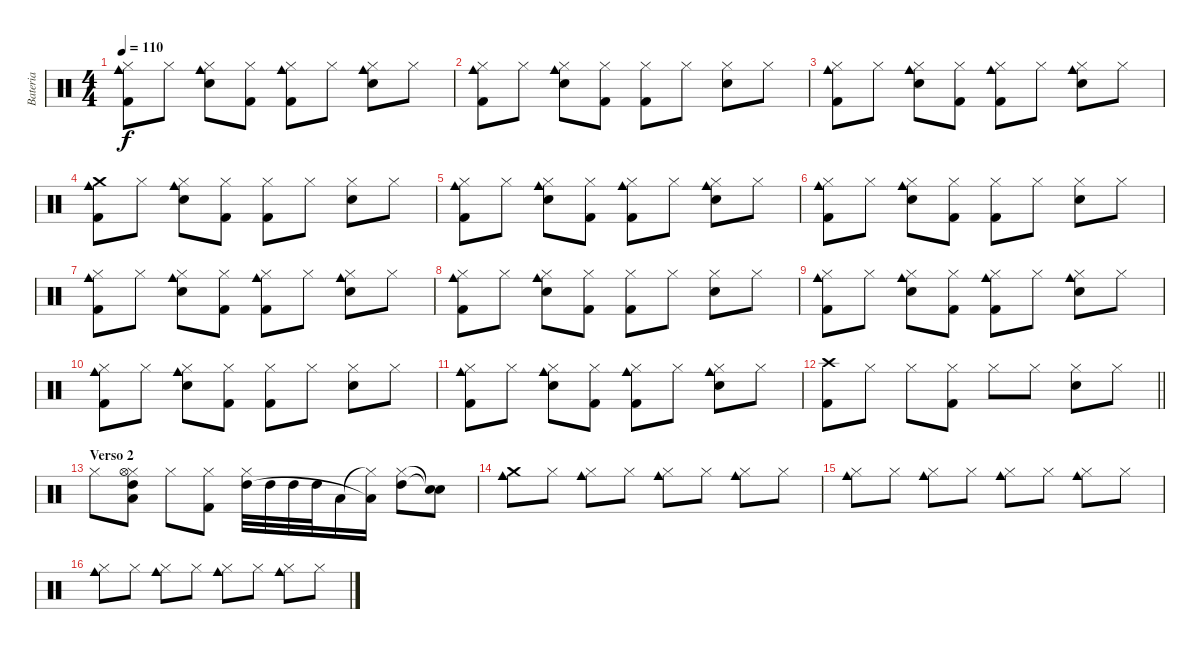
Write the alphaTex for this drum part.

\track ("Bateria" "Bateria") {instrument percussion}
\staff {score}
\articulation defaults
\ts (4 4)
\tempo 110
\clef neutral
\ks c
("Hi-Hat (closed)" "Cowbell medium (hit)" "Kick (hit) 2").8{dy f} "Hi-Hat (closed)".8 ("Hi-Hat (closed)" "Electric Snare (hit)" "Cowbell medium (hit)").8 ("Hi-Hat (closed)" "Kick (hit) 2").8 ("Hi-Hat (closed)" "Cowbell medium (hit)" "Kick (hit) 2").8 "Hi-Hat (closed)".8 ("Hi-Hat (closed)" "Electric Snare (hit)" "Cowbell medium (hit)").8 "Hi-Hat (closed)".8 |
("Hi-Hat (closed)" "Cowbell medium (hit)" "Kick (hit) 2").8 "Hi-Hat (closed)".8 ("Hi-Hat (closed)" "Electric Snare (hit)" "Cowbell medium (hit)").8 ("Hi-Hat (closed)" "Kick (hit) 2").8 ("Hi-Hat (closed)" "Kick (hit) 2").8 "Hi-Hat (closed)".8 ("Hi-Hat (closed)" "Electric Snare (hit)").8 "Hi-Hat (closed)".8 |
("Hi-Hat (closed)" "Cowbell medium (hit)" "Kick (hit) 2").8 "Hi-Hat (closed)".8 ("Hi-Hat (closed)" "Electric Snare (hit)" "Cowbell medium (hit)").8 ("Hi-Hat (closed)" "Kick (hit) 2").8 ("Hi-Hat (closed)" "Cowbell medium (hit)" "Kick (hit) 2").8 "Hi-Hat (closed)".8 ("Hi-Hat (closed)" "Electric Snare (hit)" "Cowbell medium (hit)").8 "Hi-Hat (closed)".8 |
("Crash medium (hit)" "Cowbell medium (hit)" "Kick (hit) 2").8 "Hi-Hat (closed)".8 ("Hi-Hat (closed)" "Electric Snare (hit)" "Cowbell medium (hit)").8 ("Hi-Hat (closed)" "Kick (hit) 2").8 ("Hi-Hat (closed)" "Kick (hit) 2").8 "Hi-Hat (closed)".8 ("Hi-Hat (closed)" "Electric Snare (hit)").8 "Hi-Hat (closed)".8 |
("Hi-Hat (closed)" "Cowbell medium (hit)" "Kick (hit) 2").8 "Hi-Hat (closed)".8 ("Hi-Hat (closed)" "Electric Snare (hit)" "Cowbell medium (hit)").8 ("Hi-Hat (closed)" "Kick (hit) 2").8 ("Hi-Hat (closed)" "Cowbell medium (hit)" "Kick (hit) 2").8 "Hi-Hat (closed)".8 ("Hi-Hat (closed)" "Electric Snare (hit)" "Cowbell medium (hit)").8 "Hi-Hat (closed)".8 |
("Hi-Hat (closed)" "Cowbell medium (hit)" "Kick (hit) 2").8 "Hi-Hat (closed)".8 ("Hi-Hat (closed)" "Electric Snare (hit)" "Cowbell medium (hit)").8 ("Hi-Hat (closed)" "Kick (hit) 2").8 ("Hi-Hat (closed)" "Kick (hit) 2").8 "Hi-Hat (closed)".8 ("Hi-Hat (closed)" "Electric Snare (hit)").8 "Hi-Hat (closed)".8 |
("Hi-Hat (closed)" "Cowbell medium (hit)" "Kick (hit) 2").8 "Hi-Hat (closed)".8 ("Hi-Hat (closed)" "Electric Snare (hit)" "Cowbell medium (hit)").8 ("Hi-Hat (closed)" "Kick (hit) 2").8 ("Hi-Hat (closed)" "Cowbell medium (hit)" "Kick (hit) 2").8 "Hi-Hat (closed)".8 ("Hi-Hat (closed)" "Electric Snare (hit)" "Cowbell medium (hit)").8 "Hi-Hat (closed)".8 |
("Hi-Hat (closed)" "Cowbell medium (hit)" "Kick (hit) 2").8 "Hi-Hat (closed)".8 ("Hi-Hat (closed)" "Electric Snare (hit)" "Cowbell medium (hit)").8 ("Hi-Hat (closed)" "Kick (hit) 2").8 ("Hi-Hat (closed)" "Kick (hit) 2").8 "Hi-Hat (closed)".8 ("Hi-Hat (closed)" "Electric Snare (hit)").8 "Hi-Hat (closed)".8 |
("Hi-Hat (closed)" "Cowbell medium (hit)" "Kick (hit) 2").8 "Hi-Hat (closed)".8 ("Hi-Hat (closed)" "Electric Snare (hit)" "Cowbell medium (hit)").8 ("Hi-Hat (closed)" "Kick (hit) 2").8 ("Hi-Hat (closed)" "Cowbell medium (hit)" "Kick (hit) 2").8 "Hi-Hat (closed)".8 ("Hi-Hat (closed)" "Electric Snare (hit)" "Cowbell medium (hit)").8 "Hi-Hat (closed)".8 |
("Hi-Hat (closed)" "Cowbell medium (hit)" "Kick (hit) 2").8 "Hi-Hat (closed)".8 ("Hi-Hat (closed)" "Electric Snare (hit)" "Cowbell medium (hit)").8 ("Hi-Hat (closed)" "Kick (hit) 2").8 ("Hi-Hat (closed)" "Kick (hit) 2").8 "Hi-Hat (closed)".8 ("Hi-Hat (closed)" "Electric Snare (hit)").8 "Hi-Hat (closed)".8 |
("Hi-Hat (closed)" "Cowbell medium (hit)" "Kick (hit) 2").8 "Hi-Hat (closed)".8 ("Hi-Hat (closed)" "Electric Snare (hit)" "Cowbell medium (hit)").8 ("Hi-Hat (closed)" "Kick (hit) 2").8 ("Hi-Hat (closed)" "Cowbell medium (hit)" "Kick (hit) 2").8 "Hi-Hat (closed)".8 ("Hi-Hat (closed)" "Electric Snare (hit)" "Cowbell medium (hit)").8 "Hi-Hat (closed)".8 |
\barLineRight lightlight
("Crash high (hit)" "Kick (hit) 2").8 "Hi-Hat (closed)".8 "Hi-Hat (closed)".8 ("Hi-Hat (closed)" "Kick (hit) 2").8 "Hi-Hat (closed)".8 "Hi-Hat (closed)".8 ("Hi-Hat (closed)" "Electric Snare (hit)").8 "Hi-Hat (closed)".8 |
\section ("" "Verso 2")
"Hi-Hat (closed)".8 ("Hi-Hat (closed)" "High Tom (hit)" "Low Tom (hit)" "Hi-Hat (open)").8 "Hi-Hat (closed)".8 ("Hi-Hat (closed)" "Kick (hit) 2").8 ("Hi-Hat (closed)" "High Tom (hit)").32 "High Tom (hit)".32 "High Tom (hit)".32 "High Tom (hit)".32 "Low Tom (hit)".16 ("Hi-Hat (closed)"{t} "Low Tom (hit)"{t}).16 ("Hi-Hat (closed)" "High Tom (hit)").8 ("Snare (hit)"{t} "Snare (hit)"{t}).8 |
("Crash medium (hit)" "Cowbell medium (hit)").8 "Hi-Hat (closed)".8 ("Hi-Hat (closed)" "Cowbell medium (hit)").8 "Hi-Hat (closed)".8 ("Hi-Hat (closed)" "Cowbell medium (hit)").8 "Hi-Hat (closed)".8 ("Hi-Hat (closed)" "Cowbell medium (hit)").8 "Hi-Hat (closed)".8 |
("Hi-Hat (closed)" "Cowbell medium (hit)").8 "Hi-Hat (closed)".8 ("Hi-Hat (closed)" "Cowbell medium (hit)").8 "Hi-Hat (closed)".8 ("Hi-Hat (closed)" "Cowbell medium (hit)").8 "Hi-Hat (closed)".8 ("Hi-Hat (closed)" "Cowbell medium (hit)").8 "Hi-Hat (closed)".8 |
("Hi-Hat (closed)" "Cowbell medium (hit)").8 "Hi-Hat (closed)".8 ("Hi-Hat (closed)" "Cowbell medium (hit)").8 "Hi-Hat (closed)".8 ("Hi-Hat (closed)" "Cowbell medium (hit)").8 "Hi-Hat (closed)".8 ("Hi-Hat (closed)" "Cowbell medium (hit)").8 "Hi-Hat (closed)".8
